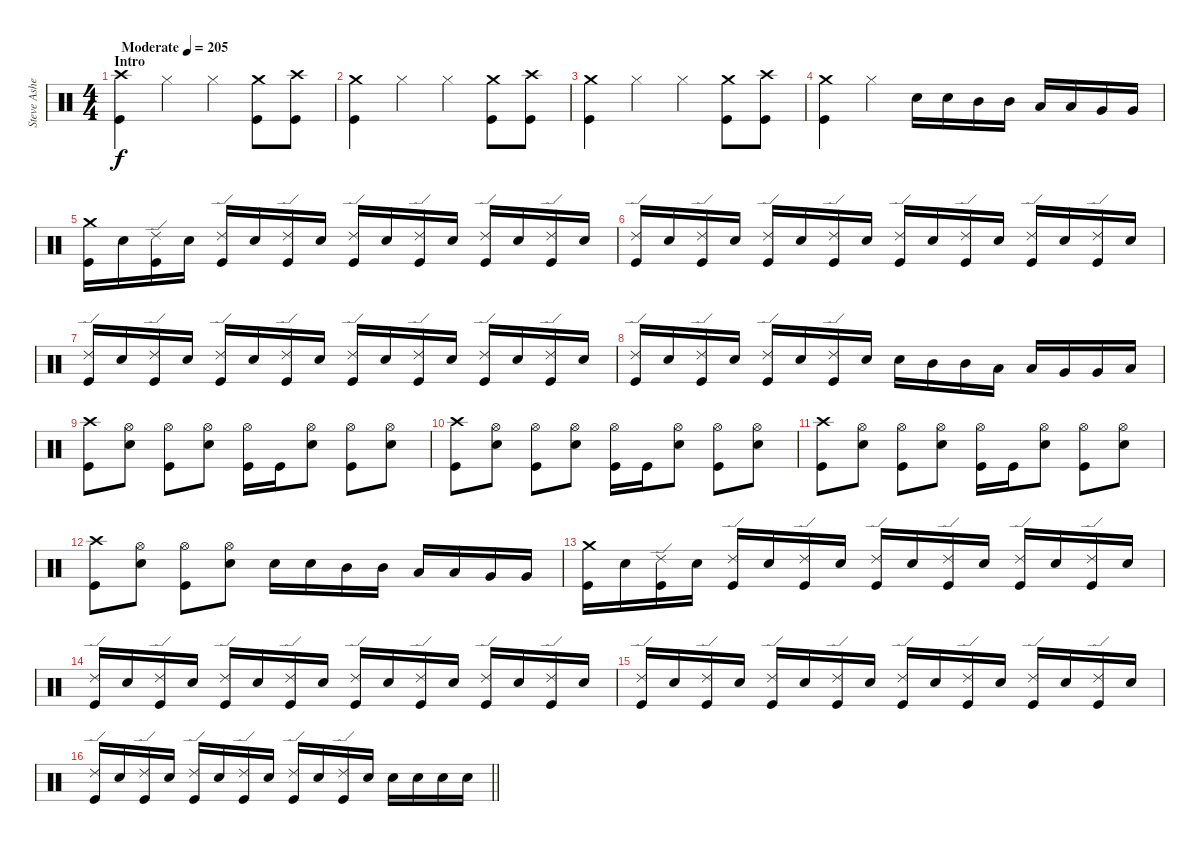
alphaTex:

\track ("Steve Asheim" "Steve Ashe") {instrument percussion}
\staff {score}
\articulation defaults
\ts (4 4)
\section ("" "Intro")
\tempo (205 "Moderate")
\clef neutral
\ks c
("Crash high (hit)" "Kick (hit)").4{dy f} "Hi-Hat (closed)".4 "Hi-Hat (closed)".4 ("Crash medium (hit)" "Kick (hit)").8 ("Crash high (hit)" "Kick (hit)").8 |
("Crash medium (hit)" "Kick (hit)").4 "Hi-Hat (closed)".4 "Hi-Hat (closed)".4 ("Crash medium (hit)" "Kick (hit)").8 ("Crash high (hit)" "Kick (hit)").8 |
("Crash medium (hit)" "Kick (hit)").4 "Hi-Hat (closed)".4 "Hi-Hat (closed)".4 ("Crash medium (hit)" "Kick (hit)").8 ("Crash high (hit)" "Kick (hit)").8 |
("Crash medium (hit)" "Kick (hit)").4 "Hi-Hat (closed)".4 "Snare (hit) 2".16 "Snare (hit) 2".16 "Mid Tom (hit)".16 "Mid Tom (hit)".16 "Low Tom (hit)".16 "Low Tom (hit)".16 "Very Low Tom (hit)".16 "Very Low Tom (hit)".16 |
("Crash medium (hit)" "Kick (hit)").16 "Snare (hit) 2".16 ("Ride (edge) 2" "Kick (hit)").16 "Snare (hit) 2".16 ("Ride (edge) 2" "Kick (hit)").16 "Snare (hit) 2".16 ("Ride (edge) 2" "Kick (hit)").16 "Snare (hit) 2".16 ("Ride (edge) 2" "Kick (hit)").16 "Snare (hit) 2".16 ("Ride (edge) 2" "Kick (hit)").16 "Snare (hit) 2".16 ("Ride (edge) 2" "Kick (hit)").16 "Snare (hit) 2".16 ("Ride (edge) 2" "Kick (hit)").16 "Snare (hit) 2".16 |
("Ride (edge) 2" "Kick (hit)").16 "Snare (hit) 2".16 ("Ride (edge) 2" "Kick (hit)").16 "Snare (hit) 2".16 ("Ride (edge) 2" "Kick (hit)").16 "Snare (hit) 2".16 ("Ride (edge) 2" "Kick (hit)").16 "Snare (hit) 2".16 ("Ride (edge) 2" "Kick (hit)").16 "Snare (hit) 2".16 ("Ride (edge) 2" "Kick (hit)").16 "Snare (hit) 2".16 ("Ride (edge) 2" "Kick (hit)").16 "Snare (hit) 2".16 ("Ride (edge) 2" "Kick (hit)").16 "Snare (hit) 2".16 |
("Ride (edge) 2" "Kick (hit)").16 "Snare (hit) 2".16 ("Ride (edge) 2" "Kick (hit)").16 "Snare (hit) 2".16 ("Ride (edge) 2" "Kick (hit)").16 "Snare (hit) 2".16 ("Ride (edge) 2" "Kick (hit)").16 "Snare (hit) 2".16 ("Ride (edge) 2" "Kick (hit)").16 "Snare (hit) 2".16 ("Ride (edge) 2" "Kick (hit)").16 "Snare (hit) 2".16 ("Ride (edge) 2" "Kick (hit)").16 "Snare (hit) 2".16 ("Ride (edge) 2" "Kick (hit)").16 "Snare (hit) 2".16 |
("Ride (edge) 2" "Kick (hit)").16 "Snare (hit) 2".16 ("Ride (edge) 2" "Kick (hit)").16 "Snare (hit) 2".16 ("Ride (edge) 2" "Kick (hit)").16 "Snare (hit) 2".16 ("Ride (edge) 2" "Kick (hit)").16 "Snare (hit) 2".16 "Snare (hit) 2".16 "Mid Tom (hit)".16 "Mid Tom (hit)".16 "Low Tom (hit)".16 "Low Tom (hit)".16 "Very Low Tom (hit)".16 "Very Low Tom (hit)".16 "Low Floor Tom (hit)".16 |
("Crash high (hit)" "Kick (hit)").8 ("Hi-Hat (open)" "Snare (hit) 2").8 ("Hi-Hat (open)" "Kick (hit)").8 ("Hi-Hat (open)" "Snare (hit) 2").8 ("Hi-Hat (open)" "Kick (hit)").16 "Kick (hit)".16 ("Hi-Hat (open)" "Snare (hit) 2").8 ("Hi-Hat (open)" "Kick (hit)").8 ("Hi-Hat (open)" "Snare (hit) 2").8 |
("Crash high (hit)" "Kick (hit)").8 ("Hi-Hat (open)" "Snare (hit) 2").8 ("Hi-Hat (open)" "Kick (hit)").8 ("Hi-Hat (open)" "Snare (hit) 2").8 ("Hi-Hat (open)" "Kick (hit)").16 "Kick (hit)".16 ("Hi-Hat (open)" "Snare (hit) 2").8 ("Hi-Hat (open)" "Kick (hit)").8 ("Hi-Hat (open)" "Snare (hit) 2").8 |
("Crash high (hit)" "Kick (hit)").8 ("Hi-Hat (open)" "Snare (hit) 2").8 ("Hi-Hat (open)" "Kick (hit)").8 ("Hi-Hat (open)" "Snare (hit) 2").8 ("Hi-Hat (open)" "Kick (hit)").16 "Kick (hit)".16 ("Hi-Hat (open)" "Snare (hit) 2").8 ("Hi-Hat (open)" "Kick (hit)").8 ("Hi-Hat (open)" "Snare (hit) 2").8 |
("Crash high (hit)" "Kick (hit)").8 ("Hi-Hat (open)" "Snare (hit) 2").8 ("Hi-Hat (open)" "Kick (hit)").8 ("Hi-Hat (open)" "Snare (hit) 2").8 "Snare (hit) 2".16 "Snare (hit) 2".16 "Mid Tom (hit)".16 "Mid Tom (hit)".16 "Low Tom (hit)".16 "Low Tom (hit)".16 "Very Low Tom (hit)".16 "Very Low Tom (hit)".16 |
("Crash medium (hit)" "Kick (hit)").16 "Snare (hit) 2".16 ("Ride (edge) 2" "Kick (hit)").16 "Snare (hit) 2".16 ("Ride (edge) 2" "Kick (hit)").16 "Snare (hit) 2".16 ("Ride (edge) 2" "Kick (hit)").16 "Snare (hit) 2".16 ("Ride (edge) 2" "Kick (hit)").16 "Snare (hit) 2".16 ("Ride (edge) 2" "Kick (hit)").16 "Snare (hit) 2".16 ("Ride (edge) 2" "Kick (hit)").16 "Snare (hit) 2".16 ("Ride (edge) 2" "Kick (hit)").16 "Snare (hit) 2".16 |
("Ride (edge) 2" "Kick (hit)").16 "Snare (hit) 2".16 ("Ride (edge) 2" "Kick (hit)").16 "Snare (hit) 2".16 ("Ride (edge) 2" "Kick (hit)").16 "Snare (hit) 2".16 ("Ride (edge) 2" "Kick (hit)").16 "Snare (hit) 2".16 ("Ride (edge) 2" "Kick (hit)").16 "Snare (hit) 2".16 ("Ride (edge) 2" "Kick (hit)").16 "Snare (hit) 2".16 ("Ride (edge) 2" "Kick (hit)").16 "Snare (hit) 2".16 ("Ride (edge) 2" "Kick (hit)").16 "Snare (hit) 2".16 |
("Ride (edge) 2" "Kick (hit)").16 "Snare (hit) 2".16 ("Ride (edge) 2" "Kick (hit)").16 "Snare (hit) 2".16 ("Ride (edge) 2" "Kick (hit)").16 "Snare (hit) 2".16 ("Ride (edge) 2" "Kick (hit)").16 "Snare (hit) 2".16 ("Ride (edge) 2" "Kick (hit)").16 "Snare (hit) 2".16 ("Ride (edge) 2" "Kick (hit)").16 "Snare (hit) 2".16 ("Ride (edge) 2" "Kick (hit)").16 "Snare (hit) 2".16 ("Ride (edge) 2" "Kick (hit)").16 "Snare (hit) 2".16 |
\barLineRight lightlight
("Ride (edge) 2" "Kick (hit)").16 "Snare (hit) 2".16 ("Ride (edge) 2" "Kick (hit)").16 "Snare (hit) 2".16 ("Ride (edge) 2" "Kick (hit)").16 "Snare (hit) 2".16 ("Ride (edge) 2" "Kick (hit)").16 "Snare (hit) 2".16 ("Ride (edge) 2" "Kick (hit)").16 "Snare (hit) 2".16 ("Ride (edge) 2" "Kick (hit)").16 "Snare (hit) 2".16 "Snare (hit) 2".16 "Snare (hit) 2".16 "Snare (hit) 2".16 "Snare (hit) 2".16
